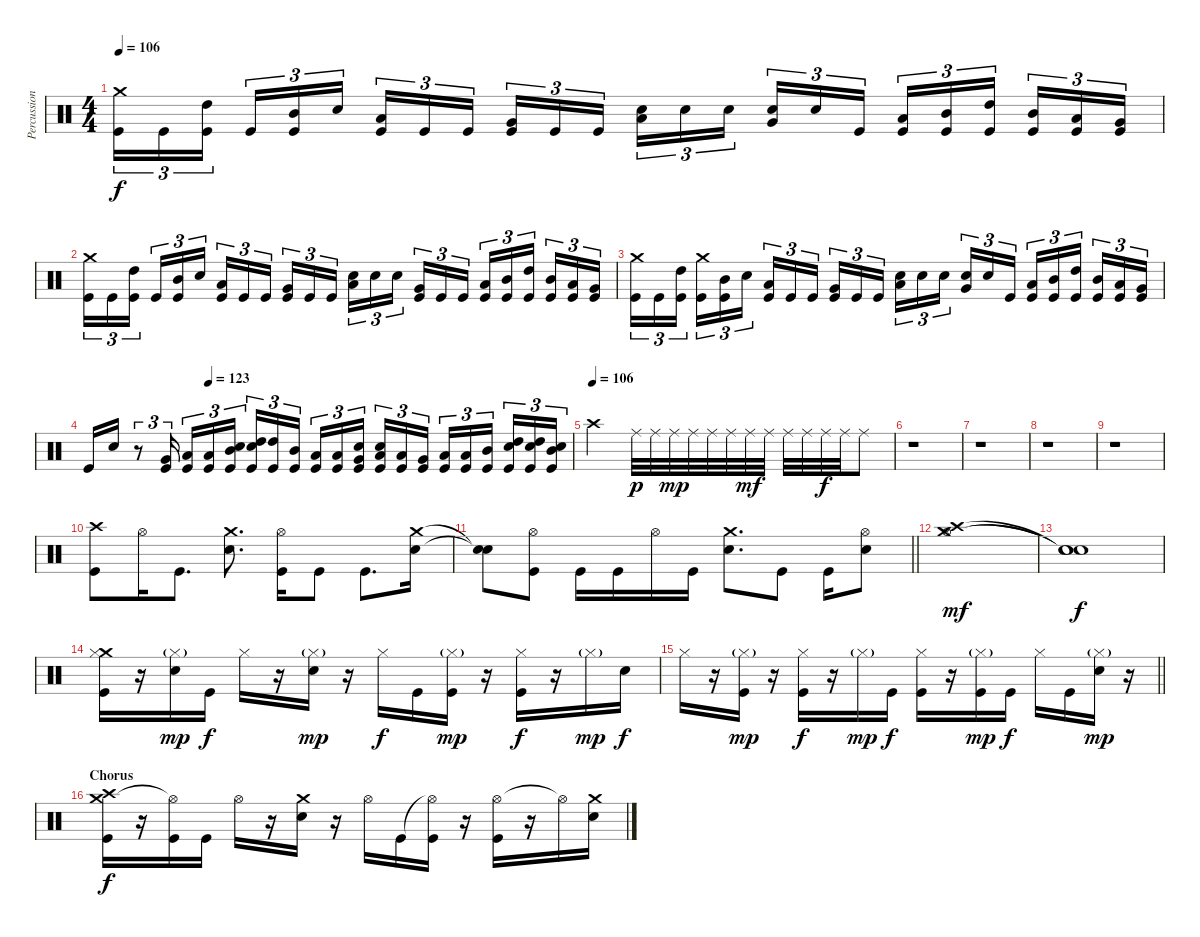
\track ("Percussion" "Percussion") {instrument percussion}
\staff {score}
\articulation defaults
\ts (4 4)
\tempo 106
\clef neutral
\ks c
("Crash medium (hit)" "Kick (hit)").16{tu (3 2) dy f} "Kick (hit)".16{tu (3 2)} ("High Tom (hit)" "Kick (hit)").16{tu (3 2) beam splitsecondary} "Kick (hit)".16{tu (3 2)} ("Mid Tom (hit)" "Kick (hit)").16{tu (3 2)} "Snare (hit) 2".16{tu (3 2)} ("Low Tom (hit)" "Kick (hit)").16{tu (3 2)} "Kick (hit)".16{tu (3 2)} "Kick (hit)".16{tu (3 2) beam splitsecondary} ("Very Low Tom (hit)" "Kick (hit)").16{tu (3 2)} "Kick (hit)".16{tu (3 2)} "Kick (hit)".16{tu (3 2)} ("Low Floor Tom (hit)" "Snare (hit) 2").16{tu (3 2)} "Snare (hit) 2".16{tu (3 2)} "Snare (hit) 2".16{tu (3 2) beam splitsecondary} ("Very Low Tom (hit)" "Snare (hit) 2").16{tu (3 2)} "Snare (hit) 2".16{tu (3 2)} "Kick (hit)".16{tu (3 2)} ("Low Tom (hit)" "Kick (hit)").16{tu (3 2)} ("Mid Tom (hit)" "Kick (hit)").16{tu (3 2)} ("High Tom (hit)" "Kick (hit)").16{tu (3 2) beam splitsecondary} ("Mid Tom (hit)" "Kick (hit)").16{tu (3 2)} ("Low Tom (hit)" "Kick (hit)").16{tu (3 2)} ("Very Low Tom (hit)" "Kick (hit)").16{tu (3 2)} |
("Crash medium (hit)" "Kick (hit)").16{tu (3 2)} "Kick (hit)".16{tu (3 2)} ("High Tom (hit)" "Kick (hit)").16{tu (3 2) beam splitsecondary} "Kick (hit)".16{tu (3 2)} ("Mid Tom (hit)" "Kick (hit)").16{tu (3 2)} "Snare (hit) 2".16{tu (3 2)} ("Low Tom (hit)" "Kick (hit)").16{tu (3 2)} "Kick (hit)".16{tu (3 2)} "Kick (hit)".16{tu (3 2) beam splitsecondary} ("Very Low Tom (hit)" "Kick (hit)").16{tu (3 2)} "Kick (hit)".16{tu (3 2)} "Kick (hit)".16{tu (3 2)} ("Low Floor Tom (hit)" "Snare (hit) 2").16{tu (3 2)} "Snare (hit) 2".16{tu (3 2)} "Snare (hit) 2".16{tu (3 2) beam splitsecondary} ("Very Low Tom (hit)" "Kick (hit)").16{tu (3 2)} "Kick (hit)".16{tu (3 2)} "Kick (hit)".16{tu (3 2)} ("Low Tom (hit)" "Kick (hit)").16{tu (3 2)} ("Mid Tom (hit)" "Kick (hit)").16{tu (3 2)} ("High Tom (hit)" "Kick (hit)").16{tu (3 2) beam splitsecondary} ("Mid Tom (hit)" "Kick (hit)").16{tu (3 2)} ("Low Tom (hit)" "Kick (hit)").16{tu (3 2)} ("Very Low Tom (hit)" "Kick (hit)").16{tu (3 2)} |
("Crash medium (hit)" "Kick (hit)").16{tu (3 2)} "Kick (hit)".16{tu (3 2)} ("High Tom (hit)" "Kick (hit)").16{tu (3 2) beam splitsecondary} ("Crash medium (hit)" "Kick (hit)").16{tu (3 2)} ("Mid Tom (hit)" "Kick (hit)").16{tu (3 2)} "Snare (hit) 2".16{tu (3 2)} ("Low Tom (hit)" "Kick (hit)").16{tu (3 2)} "Kick (hit)".16{tu (3 2)} "Kick (hit)".16{tu (3 2) beam splitsecondary} ("Very Low Tom (hit)" "Kick (hit)").16{tu (3 2)} "Kick (hit)".16{tu (3 2)} "Kick (hit)".16{tu (3 2)} ("Low Floor Tom (hit)" "Snare (hit) 2").16{tu (3 2)} "Snare (hit) 2".16{tu (3 2)} "Snare (hit) 2".16{tu (3 2) beam splitsecondary} ("Very Low Tom (hit)" "Snare (hit) 2").16{tu (3 2)} "Snare (hit) 2".16{tu (3 2)} "Kick (hit)".16{tu (3 2)} ("Low Tom (hit)" "Kick (hit)").16{tu (3 2)} ("Mid Tom (hit)" "Kick (hit)").16{tu (3 2)} ("High Tom (hit)" "Kick (hit)").16{tu (3 2) beam splitsecondary} ("Mid Tom (hit)" "Kick (hit)").16{tu (3 2)} ("Low Tom (hit)" "Kick (hit)").16{tu (3 2)} ("Very Low Tom (hit)" "Kick (hit)").16{tu (3 2)} |
\tempo (123 0.25)
"Kick (hit)".16 "Snare (hit) 2".16 r.8{tu (3 2)} ("Very Low Tom (hit)" "Kick (hit)").16{tu (3 2)} ("Low Tom (hit)" "Kick (hit)").16{tu (3 2)} ("Low Tom (hit)" "Kick (hit)").16{tu (3 2)} ("Mid Tom (hit)" "Snare (hit) 2" "Kick (hit)").16{tu (3 2) beam splitsecondary} ("High Tom (hit)" "Snare (hit) 2" "Kick (hit)").16{tu (3 2)} ("High Tom (hit)" "Kick (hit)").16{tu (3 2)} ("Mid Tom (hit)" "Kick (hit)").16{tu (3 2)} ("Low Tom (hit)" "Kick (hit)").16{tu (3 2)} ("Low Tom (hit)" "Kick (hit)").16{tu (3 2)} ("Very Low Tom (hit)" "Snare (hit) 2" "Kick (hit)").16{tu (3 2) beam splitsecondary} ("Low Floor Tom (hit)" "Snare (hit) 2" "Kick (hit)").16{tu (3 2)} ("Low Floor Tom (hit)" "Kick (hit)").16{tu (3 2)} ("Very Low Tom (hit)" "Kick (hit)").16{tu (3 2)} ("Low Tom (hit)" "Kick (hit)").16{tu (3 2)} ("Low Tom (hit)" "Kick (hit)").16{tu (3 2)} ("Mid Tom (hit)" "Kick (hit)").16{tu (3 2) beam splitsecondary} ("High Tom (hit)" "Snare (hit) 2" "Kick (hit)").16{tu (3 2)} ("High Tom (hit)" "Snare (hit) 2" "Kick (hit)").16{tu (3 2)} ("Mid Tom (hit)" "Snare (hit) 2" "Kick (hit)").16{tu (3 2)} |
\tempo (106)
"Crash high (hit)".2 "Ride (middle)".32{dy p} "Ride (middle)".32 "Ride (middle)".32{dy mp} "Ride (middle)".32 "Ride (middle)".32 "Ride (middle)".32 "Ride (middle)".32{dy mf} "Ride (middle)".32 "Ride (middle)".32 "Ride (middle)".32 "Ride (middle)".32{dy f} "Ride (middle)".32 "Ride (middle)".8 |
r.1 |
r.1 |
r.1 |
r.1 |
("Crash high (hit)" "Kick (hit)").8 "Hi-Hat (open)".16 "Kick (hit)".8{d} ("Crash medium (hit)" "Snare (hit) 2").8{d} ("Hi-Hat (open)" "Kick (hit)").16 "Kick (hit)".8 "Kick (hit)".8{d} ("Crash medium (hit)" "Snare (hit) 2").16 |
\barLineRight lightlight
("Snare (hit)"{t} "Snare (hit)"{t}).8 ("Hi-Hat (open)" "Kick (hit)").8 "Kick (hit)".16 "Kick (hit)".16 "Hi-Hat (open)".16 "Kick (hit)".16 ("Crash medium (hit)" "Snare (hit) 2").8{d} "Kick (hit)".8 "Kick (hit)".16 ("Hi-Hat (open)" "Snare (hit) 2").8 |
("Crash medium (hit)" "Crash high (hit)" "Hi-Hat (open)").1{dy mf} |
("Snare (hit)"{t} "Snare (hit)"{t} "Snare (hit)"{t}).1{dy f} |
("Crash medium (hit)" "Hi-Hat (closed)" "Kick (hit)").16 r.16 ("Hi-Hat (closed)"{g} "Snare (hit) 2").16{dy mp} "Kick (hit)".16{dy f} "Hi-Hat (closed)".16 r.16 ("Hi-Hat (closed)"{g} "Snare (hit) 2").16{dy mp} r.16 "Hi-Hat (closed)".16{dy f} "Kick (hit)".16 ("Hi-Hat (closed)"{g} "Kick (hit)").16{dy mp} r.16 ("Hi-Hat (closed)" "Kick (hit)").16{dy f} r.16 "Hi-Hat (closed)"{g}.16{dy mp} "Snare (hit) 2".16{dy f} |
\barLineRight lightlight "Hi-Hat (closed)".16
r.16 ("Hi-Hat (closed)"{g} "Kick (hit)").16{dy mp} r.16 ("Hi-Hat (closed)" "Kick (hit)").16{dy f} r.16 "Hi-Hat (closed)"{g}.16{dy mp} "Kick (hit)".16{dy f} ("Hi-Hat (closed)" "Kick (hit)").16 r.16 ("Hi-Hat (closed)"{g} "Kick (hit)").16{dy mp} "Kick (hit)".16{dy f} "Hi-Hat (closed)".16 "Kick (hit)".16 ("Hi-Hat (closed)"{g} "Snare (hit) 2").16{dy mp} r.16 |
\section ("" "Chorus")
("Crash medium (hit)" "Crash high (hit)" "Kick (hit)").16{dy f} r.16 ("Hi-Hat (open)"{t} "Kick (hit)").16 "Kick (hit)".16 "Hi-Hat (open)".16 r.16 ("Crash medium (hit)" "Snare (hit) 2").16 r.16 "Hi-Hat (open)".16 "Kick (hit)".16 ("Hi-Hat (open)"{t} "Kick (hit)").16 r.16 ("Hi-Hat (open)" "Kick (hit)").16 r.16 "Hi-Hat (open)"{t}.16 ("Crash medium (hit)" "Snare (hit) 2").16
